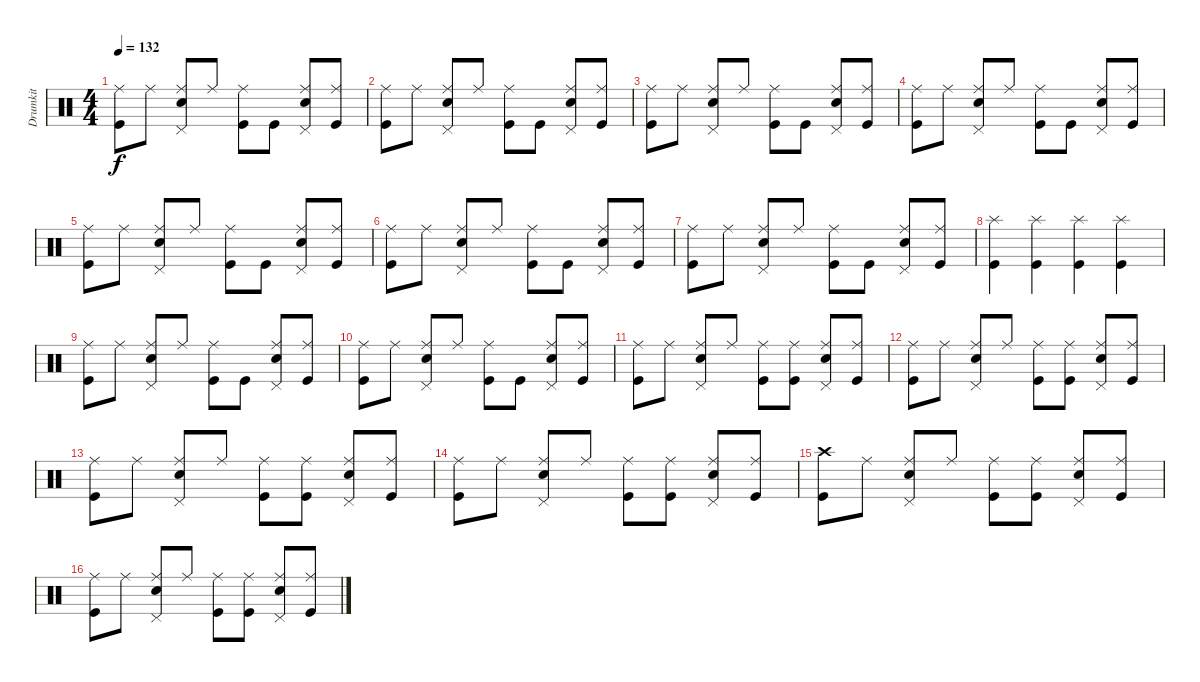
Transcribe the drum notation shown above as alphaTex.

\track ("Drumkit" "Drumkit") {instrument percussion}
\staff {score}
\articulation defaults
\ts (4 4)
\tempo 132
\clef neutral
\ks c
("Kick (hit)" "Ride (middle)").8{dy f} "Ride (middle)".8 ("Snare (hit) 2" "Pedal Hi-Hat (hit)" "Ride (middle)").8 "Ride (middle)".8 ("Kick (hit)" "Ride (middle)").8 "Kick (hit)".8 ("Snare (hit) 2" "Pedal Hi-Hat (hit)" "Ride (middle)").8 ("Kick (hit)" "Ride (middle)").8 |
("Kick (hit)" "Ride (middle)").8 "Ride (middle)".8 ("Snare (hit) 2" "Pedal Hi-Hat (hit)" "Ride (middle)").8 "Ride (middle)".8 ("Kick (hit)" "Ride (middle)").8 "Kick (hit)".8 ("Snare (hit) 2" "Pedal Hi-Hat (hit)" "Ride (middle)").8 ("Kick (hit)" "Ride (middle)").8 |
("Kick (hit)" "Ride (middle)").8 "Ride (middle)".8 ("Snare (hit) 2" "Pedal Hi-Hat (hit)" "Ride (middle)").8 "Ride (middle)".8 ("Kick (hit)" "Ride (middle)").8 "Kick (hit)".8 ("Snare (hit) 2" "Pedal Hi-Hat (hit)" "Ride (middle)").8 ("Kick (hit)" "Ride (middle)").8 |
("Kick (hit)" "Ride (middle)").8 "Ride (middle)".8 ("Snare (hit) 2" "Pedal Hi-Hat (hit)" "Ride (middle)").8 "Ride (middle)".8 ("Kick (hit)" "Ride (middle)").8 "Kick (hit)".8 ("Snare (hit) 2" "Pedal Hi-Hat (hit)" "Ride (middle)").8 ("Kick (hit)" "Ride (middle)").8 |
("Kick (hit)" "Ride (middle)").8 "Ride (middle)".8 ("Snare (hit) 2" "Pedal Hi-Hat (hit)" "Ride (middle)").8 "Ride (middle)".8 ("Kick (hit)" "Ride (middle)").8 "Kick (hit)".8 ("Snare (hit) 2" "Pedal Hi-Hat (hit)" "Ride (middle)").8 ("Kick (hit)" "Ride (middle)").8 |
("Kick (hit)" "Ride (middle)").8 "Ride (middle)".8 ("Snare (hit) 2" "Pedal Hi-Hat (hit)" "Ride (middle)").8 "Ride (middle)".8 ("Kick (hit)" "Ride (middle)").8 "Kick (hit)".8 ("Snare (hit) 2" "Pedal Hi-Hat (hit)" "Ride (middle)").8 ("Kick (hit)" "Ride (middle)").8 |
("Kick (hit)" "Ride (middle)").8 "Ride (middle)".8 ("Snare (hit) 2" "Pedal Hi-Hat (hit)" "Ride (middle)").8 "Ride (middle)".8 ("Kick (hit)" "Ride (middle)").8 "Kick (hit)".8 ("Snare (hit) 2" "Pedal Hi-Hat (hit)" "Ride (middle)").8 ("Kick (hit)" "Ride (middle)").8 |
("Kick (hit)" "Splash (hit)").4 ("Kick (hit)" "Splash (hit)").4 ("Kick (hit)" "Splash (hit)").4 ("Kick (hit)" "Splash (hit)").4 |
("Kick (hit)" "Ride (middle)").8 "Ride (middle)".8 ("Snare (hit) 2" "Pedal Hi-Hat (hit)" "Ride (middle)").8 "Ride (middle)".8 ("Kick (hit)" "Ride (middle)").8 "Kick (hit)".8 ("Snare (hit) 2" "Pedal Hi-Hat (hit)" "Ride (middle)").8 ("Kick (hit)" "Ride (middle)").8 |
("Kick (hit)" "Ride (middle)").8 "Ride (middle)".8 ("Snare (hit) 2" "Pedal Hi-Hat (hit)" "Ride (middle)").8 "Ride (middle)".8 ("Kick (hit)" "Ride (middle)").8 "Kick (hit)".8 ("Snare (hit) 2" "Pedal Hi-Hat (hit)" "Ride (middle)").8 ("Kick (hit)" "Ride (middle)").8 |
("Kick (hit)" "Ride (middle)").8 "Ride (middle)".8 ("Snare (hit) 2" "Pedal Hi-Hat (hit)" "Ride (middle)").8 "Ride (middle)".8 ("Kick (hit)" "Ride (middle)").8 ("Kick (hit)" "Ride (middle)").8 ("Snare (hit) 2" "Pedal Hi-Hat (hit)" "Ride (middle)").8 ("Kick (hit)" "Ride (middle)").8 |
("Kick (hit)" "Ride (middle)").8 "Ride (middle)".8 ("Snare (hit) 2" "Pedal Hi-Hat (hit)" "Ride (middle)").8 "Ride (middle)".8 ("Kick (hit)" "Ride (middle)").8 ("Kick (hit)" "Ride (middle)").8 ("Snare (hit) 2" "Pedal Hi-Hat (hit)" "Ride (middle)").8 ("Kick (hit)" "Ride (middle)").8 |
("Kick (hit)" "Ride (middle)").8 "Ride (middle)".8 ("Snare (hit) 2" "Pedal Hi-Hat (hit)" "Ride (middle)").8 "Ride (middle)".8 ("Kick (hit)" "Ride (middle)").8 ("Kick (hit)" "Ride (middle)").8 ("Snare (hit) 2" "Pedal Hi-Hat (hit)" "Ride (middle)").8 ("Kick (hit)" "Ride (middle)").8 |
("Kick (hit)" "Ride (middle)").8 "Ride (middle)".8 ("Snare (hit) 2" "Pedal Hi-Hat (hit)" "Ride (middle)").8 "Ride (middle)".8 ("Kick (hit)" "Ride (middle)").8 ("Kick (hit)" "Ride (middle)").8 ("Snare (hit) 2" "Pedal Hi-Hat (hit)" "Ride (middle)").8 ("Kick (hit)" "Ride (middle)").8 |
("Kick (hit)" "Crash high (hit)").8 "Ride (middle)".8 ("Snare (hit) 2" "Pedal Hi-Hat (hit)" "Ride (middle)").8 "Ride (middle)".8 ("Kick (hit)" "Ride (middle)").8 ("Kick (hit)" "Ride (middle)").8 ("Snare (hit) 2" "Pedal Hi-Hat (hit)" "Ride (middle)").8 ("Kick (hit)" "Ride (middle)").8 |
("Kick (hit)" "Ride (middle)").8 "Ride (middle)".8 ("Snare (hit) 2" "Pedal Hi-Hat (hit)" "Ride (middle)").8 "Ride (middle)".8 ("Kick (hit)" "Ride (middle)").8 ("Kick (hit)" "Ride (middle)").8 ("Snare (hit) 2" "Pedal Hi-Hat (hit)" "Ride (middle)").8 ("Kick (hit)" "Ride (middle)").8
